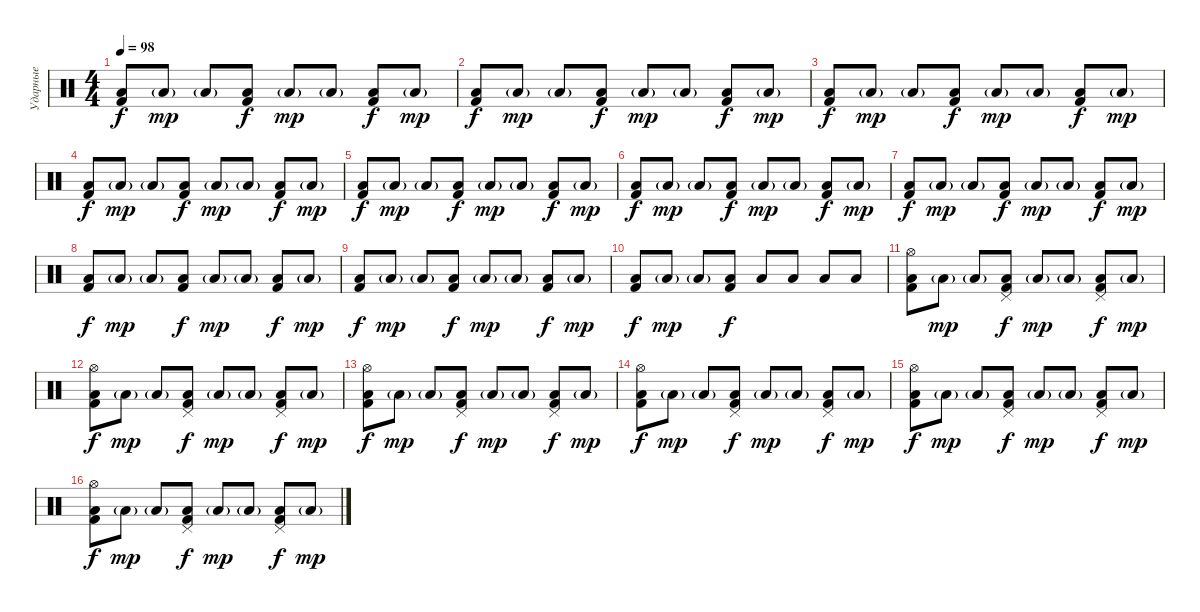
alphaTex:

\track ("Ударные" "Ударные") {instrument percussion}
\staff {score}
\articulation defaults
\ts (4 4)
\tempo 98
\clef neutral
\ks c
("Kick (hit) 2" "Low Tom (hit)").8{dy f} "Low Tom (hit)"{g}.8{dy mp} "Low Tom (hit)"{g}.8 ("Kick (hit) 2" "Low Tom (hit)").8{dy f} "Low Tom (hit)"{g}.8{dy mp} "Low Tom (hit)"{g}.8 ("Kick (hit) 2" "Low Tom (hit)").8{dy f} "Low Tom (hit)"{g}.8{dy mp} |
("Kick (hit) 2" "Low Tom (hit)").8{dy f} "Low Tom (hit)"{g}.8{dy mp} "Low Tom (hit)"{g}.8 ("Kick (hit) 2" "Low Tom (hit)").8{dy f} "Low Tom (hit)"{g}.8{dy mp} "Low Tom (hit)"{g}.8 ("Kick (hit) 2" "Low Tom (hit)").8{dy f} "Low Tom (hit)"{g}.8{dy mp} |
("Kick (hit) 2" "Low Tom (hit)").8{dy f} "Low Tom (hit)"{g}.8{dy mp} "Low Tom (hit)"{g}.8 ("Kick (hit) 2" "Low Tom (hit)").8{dy f} "Low Tom (hit)"{g}.8{dy mp} "Low Tom (hit)"{g}.8 ("Kick (hit) 2" "Low Tom (hit)").8{dy f} "Low Tom (hit)"{g}.8{dy mp} |
("Kick (hit) 2" "Low Tom (hit)").8{dy f} "Low Tom (hit)"{g}.8{dy mp} "Low Tom (hit)"{g}.8 ("Kick (hit) 2" "Low Tom (hit)").8{dy f} "Low Tom (hit)"{g}.8{dy mp} "Low Tom (hit)"{g}.8 ("Kick (hit) 2" "Low Tom (hit)").8{dy f} "Low Tom (hit)"{g}.8{dy mp} |
("Kick (hit) 2" "Low Tom (hit)").8{dy f} "Low Tom (hit)"{g}.8{dy mp} "Low Tom (hit)"{g}.8 ("Kick (hit) 2" "Low Tom (hit)").8{dy f} "Low Tom (hit)"{g}.8{dy mp} "Low Tom (hit)"{g}.8 ("Kick (hit) 2" "Low Tom (hit)").8{dy f} "Low Tom (hit)"{g}.8{dy mp} |
("Kick (hit) 2" "Low Tom (hit)").8{dy f} "Low Tom (hit)"{g}.8{dy mp} "Low Tom (hit)"{g}.8 ("Kick (hit) 2" "Low Tom (hit)").8{dy f} "Low Tom (hit)"{g}.8{dy mp} "Low Tom (hit)"{g}.8 ("Kick (hit) 2" "Low Tom (hit)").8{dy f} "Low Tom (hit)"{g}.8{dy mp} |
("Kick (hit) 2" "Low Tom (hit)").8{dy f} "Low Tom (hit)"{g}.8{dy mp} "Low Tom (hit)"{g}.8 ("Kick (hit) 2" "Low Tom (hit)").8{dy f} "Low Tom (hit)"{g}.8{dy mp} "Low Tom (hit)"{g}.8 ("Kick (hit) 2" "Low Tom (hit)").8{dy f} "Low Tom (hit)"{g}.8{dy mp} |
("Kick (hit) 2" "Low Tom (hit)").8{dy f} "Low Tom (hit)"{g}.8{dy mp} "Low Tom (hit)"{g}.8 ("Kick (hit) 2" "Low Tom (hit)").8{dy f} "Low Tom (hit)"{g}.8{dy mp} "Low Tom (hit)"{g}.8 ("Kick (hit) 2" "Low Tom (hit)").8{dy f} "Low Tom (hit)"{g}.8{dy mp} |
("Kick (hit) 2" "Low Tom (hit)").8{dy f} "Low Tom (hit)"{g}.8{dy mp} "Low Tom (hit)"{g}.8 ("Kick (hit) 2" "Low Tom (hit)").8{dy f} "Low Tom (hit)"{g}.8{dy mp} "Low Tom (hit)"{g}.8 ("Kick (hit) 2" "Low Tom (hit)").8{dy f} "Low Tom (hit)"{g}.8{dy mp} |
("Kick (hit) 2" "Low Tom (hit)").8{dy f} "Low Tom (hit)"{g}.8{dy mp} "Low Tom (hit)"{g}.8 ("Kick (hit) 2" "Low Tom (hit)").8{dy f} "Low Tom (hit)".8 "Low Tom (hit)".8 "Low Tom (hit)".8 "Low Tom (hit)".8 |
("Hi-Hat (open)" "Kick (hit) 2" "Low Tom (hit)").8 "Low Tom (hit)"{g}.8{dy mp} "Low Tom (hit)"{g}.8 ("Pedal Hi-Hat (hit)" "Kick (hit) 2" "Low Tom (hit)").8{dy f} "Low Tom (hit)"{g}.8{dy mp} "Low Tom (hit)"{g}.8 ("Pedal Hi-Hat (hit)" "Kick (hit) 2" "Low Tom (hit)").8{dy f} "Low Tom (hit)"{g}.8{dy mp} |
("Hi-Hat (open)" "Kick (hit) 2" "Low Tom (hit)").8{dy f} "Low Tom (hit)"{g}.8{dy mp} "Low Tom (hit)"{g}.8 ("Pedal Hi-Hat (hit)" "Kick (hit) 2" "Low Tom (hit)").8{dy f} "Low Tom (hit)"{g}.8{dy mp} "Low Tom (hit)"{g}.8 ("Pedal Hi-Hat (hit)" "Kick (hit) 2" "Low Tom (hit)").8{dy f} "Low Tom (hit)"{g}.8{dy mp} |
("Hi-Hat (open)" "Kick (hit) 2" "Low Tom (hit)").8{dy f} "Low Tom (hit)"{g}.8{dy mp} "Low Tom (hit)"{g}.8 ("Pedal Hi-Hat (hit)" "Kick (hit) 2" "Low Tom (hit)").8{dy f} "Low Tom (hit)"{g}.8{dy mp} "Low Tom (hit)"{g}.8 ("Pedal Hi-Hat (hit)" "Kick (hit) 2" "Low Tom (hit)").8{dy f} "Low Tom (hit)"{g}.8{dy mp} |
("Hi-Hat (open)" "Kick (hit) 2" "Low Tom (hit)").8{dy f} "Low Tom (hit)"{g}.8{dy mp} "Low Tom (hit)"{g}.8 ("Pedal Hi-Hat (hit)" "Kick (hit) 2" "Low Tom (hit)").8{dy f} "Low Tom (hit)"{g}.8{dy mp} "Low Tom (hit)"{g}.8 ("Pedal Hi-Hat (hit)" "Kick (hit) 2" "Low Tom (hit)").8{dy f} "Low Tom (hit)"{g}.8{dy mp} |
("Hi-Hat (open)" "Kick (hit) 2" "Low Tom (hit)").8{dy f} "Low Tom (hit)"{g}.8{dy mp} "Low Tom (hit)"{g}.8 ("Pedal Hi-Hat (hit)" "Kick (hit) 2" "Low Tom (hit)").8{dy f} "Low Tom (hit)"{g}.8{dy mp} "Low Tom (hit)"{g}.8 ("Pedal Hi-Hat (hit)" "Kick (hit) 2" "Low Tom (hit)").8{dy f} "Low Tom (hit)"{g}.8{dy mp} |
("Hi-Hat (open)" "Kick (hit) 2" "Low Tom (hit)").8{dy f} "Low Tom (hit)"{g}.8{dy mp} "Low Tom (hit)"{g}.8 ("Pedal Hi-Hat (hit)" "Kick (hit) 2" "Low Tom (hit)").8{dy f} "Low Tom (hit)"{g}.8{dy mp} "Low Tom (hit)"{g}.8 ("Pedal Hi-Hat (hit)" "Kick (hit) 2" "Low Tom (hit)").8{dy f} "Low Tom (hit)"{g}.8{dy mp}
